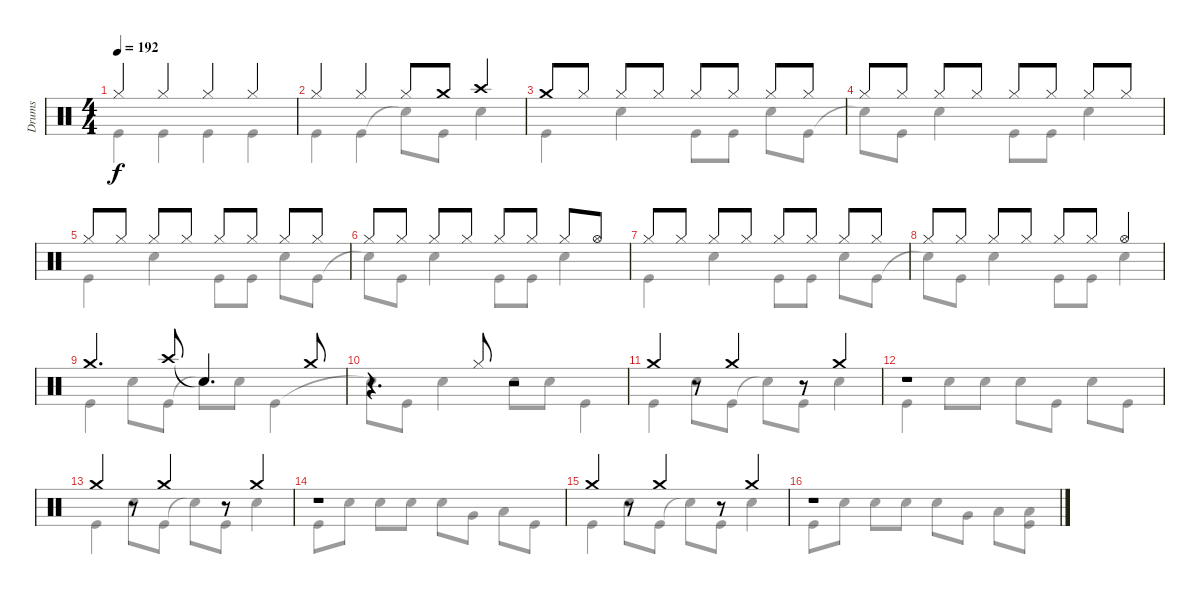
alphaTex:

\track ("Drums" "Drums") {instrument percussion}
\staff {score}
\articulation defaults
\voice
\ts (4 4)
\tempo 192
\clef neutral
\ks c "Hi-Hat (closed)".4{dy f} "Hi-Hat (closed)".4 "Hi-Hat (closed)".4 "Hi-Hat (closed)".4
|
"Hi-Hat (closed)".4 "Hi-Hat (closed)".4 "Hi-Hat (closed)".8 "Crash medium (hit)".8 "Crash high (hit)".4 |
"Crash medium (hit)".8 "Hi-Hat (closed)".8 "Hi-Hat (closed)".8 "Hi-Hat (closed)".8 "Hi-Hat (closed)".8 "Hi-Hat (closed)".8 "Hi-Hat (closed)".8 "Hi-Hat (closed)".8 |
"Hi-Hat (closed)".8 "Hi-Hat (closed)".8 "Hi-Hat (closed)".8 "Hi-Hat (closed)".8 "Hi-Hat (closed)".8 "Hi-Hat (closed)".8 "Hi-Hat (closed)".8 "Hi-Hat (closed)".8 |
"Hi-Hat (closed)".8 "Hi-Hat (closed)".8 "Hi-Hat (closed)".8 "Hi-Hat (closed)".8 "Hi-Hat (closed)".8 "Hi-Hat (closed)".8 "Hi-Hat (closed)".8 "Hi-Hat (closed)".8 |
"Hi-Hat (closed)".8 "Hi-Hat (closed)".8 "Hi-Hat (closed)".8 "Hi-Hat (closed)".8 "Hi-Hat (closed)".8 "Hi-Hat (closed)".8 "Hi-Hat (closed)".8 "Hi-Hat (open)".8 |
"Hi-Hat (closed)".8 "Hi-Hat (closed)".8 "Hi-Hat (closed)".8 "Hi-Hat (closed)".8 "Hi-Hat (closed)".8 "Hi-Hat (closed)".8 "Hi-Hat (closed)".8 "Hi-Hat (closed)".8 |
"Hi-Hat (closed)".8 "Hi-Hat (closed)".8 "Hi-Hat (closed)".8 "Hi-Hat (closed)".8 "Hi-Hat (closed)".8 "Hi-Hat (closed)".8 "Hi-Hat (open)".4 |
"Crash medium (hit)".4{d} "Crash high (hit)".8 "Snare (hit)"{t}.4{d} "Crash medium (hit)".8 |
r.4{d} "Hi-Hat (closed)".8 r.2 |
"Crash medium (hit)".4{beam Up} r.8 "Crash medium (hit)".4{beam Up} r.8 "Crash medium (hit)".4{beam Up} |
r.1 |
"Crash medium (hit)".4{beam Up} r.8 "Crash medium (hit)".4{beam Up} r.8 "Crash medium (hit)".4{beam Up} |
r.1 |
"Crash medium (hit)".4{beam Up} r.8 "Crash medium (hit)".4{beam Up} r.8 "Crash medium (hit)".4{beam Up} |
r.1
\voice
\clef neutral
\ottava regular
\simile none
\ks c "Kick (hit)".4{dy f} "Kick (hit)".4 "Kick (hit)".4 "Kick (hit)".4
|
"Kick (hit)".4 "Kick (hit)".4 "Snare (hit)"{t}.8 "Kick (hit)".8 "Snare (hit) 2".4 |
"Kick (hit)".4 "Snare (hit) 2".4 "Kick (hit)".8 "Kick (hit)".8 "Snare (hit) 2".8 "Kick (hit)".8 |
"Snare (hit)"{t}.8 "Kick (hit)".8 "Snare (hit) 2".4 "Kick (hit)".8 "Kick (hit)".8 "Snare (hit) 2".4 |
"Kick (hit)".4 "Snare (hit) 2".4 "Kick (hit)".8 "Kick (hit)".8 "Snare (hit) 2".8 "Kick (hit)".8 |
"Snare (hit)"{t}.8 "Kick (hit)".8 "Snare (hit) 2".4 "Kick (hit)".8 "Kick (hit)".8 "Snare (hit) 2".4 |
"Kick (hit)".4 "Snare (hit) 2".4 "Kick (hit)".8 "Kick (hit)".8 "Snare (hit) 2".8 "Kick (hit)".8 |
"Snare (hit)"{t}.8 "Kick (hit)".8 "Snare (hit) 2".4 "Kick (hit)".8 "Kick (hit)".8 "Snare (hit) 2".4 |
"Kick (hit)".4 "Snare (hit) 2".8 "Kick (hit)".8 "Snare (hit)"{t}.8 "Snare (hit) 2".8 "Kick (hit)".4 |
"Snare (hit)"{t}.8 "Kick (hit)".8 "Snare (hit) 2".4 "Snare (hit) 2".8 "Snare (hit) 2".8 "Kick (hit)".4 |
"Kick (hit)".4 "Snare (hit) 2".8 "Kick (hit)".8 "Snare (hit)"{t}.8 "Kick (hit)".8 "Snare (hit) 2".4 |
"Kick (hit)".4 "Snare (hit) 2".8 "Snare (hit) 2".8 "Snare (hit) 2".8 "Kick (hit)".8 "Snare (hit) 2".8 "Kick (hit)".8 |
"Kick (hit)".4 "Snare (hit) 2".8 "Kick (hit)".8 "Snare (hit)"{t}.8 "Kick (hit)".8 "Snare (hit) 2".4 |
"Kick (hit)".8 "Snare (hit) 2".8 "Snare (hit) 2".8 "Snare (hit) 2".8 "Snare (hit) 2".8 "Very Low Tom (hit)".8 "Low Floor Tom (hit)".8 "Kick (hit)".8 |
"Kick (hit)".4 "Snare (hit) 2".8 "Kick (hit)".8 "Snare (hit)"{t}.8 "Kick (hit)".8 "Snare (hit) 2".4 |
"Kick (hit)".8 "Snare (hit) 2".8 "Snare (hit) 2".8 "Snare (hit) 2".8 "Snare (hit) 2".8 "Very Low Tom (hit)".8 "Low Floor Tom (hit)".8 ("Low Floor Tom (hit)" "Kick (hit)").8
